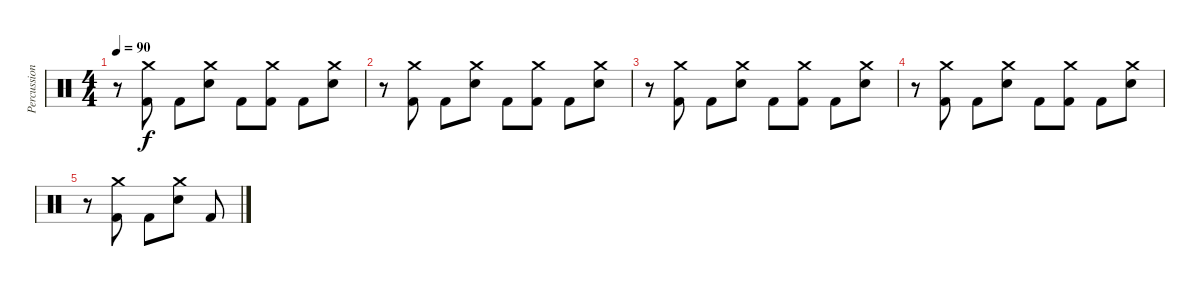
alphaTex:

\track ("Percussion" "Percussion") {instrument percussion}
\staff {score}
\articulation defaults
\ts (4 4)
\tempo 90
\clef neutral
\ks c
r.8{dy f} ("Kick (hit) 2" "Crash medium (hit)").8 "Kick (hit) 2".8 ("Snare (hit) 2" "Crash medium (hit)").8 "Kick (hit) 2".8 ("Kick (hit) 2" "Crash medium (hit)").8 "Kick (hit) 2".8 ("Snare (hit) 2" "Crash medium (hit)").8 |
r.8 ("Kick (hit) 2" "Crash medium (hit)").8 "Kick (hit) 2".8 ("Snare (hit) 2" "Crash medium (hit)").8 "Kick (hit) 2".8 ("Kick (hit) 2" "Crash medium (hit)").8 "Kick (hit) 2".8 ("Snare (hit) 2" "Crash medium (hit)").8 |
r.8 ("Kick (hit) 2" "Crash medium (hit)").8 "Kick (hit) 2".8 ("Snare (hit) 2" "Crash medium (hit)").8 "Kick (hit) 2".8 ("Kick (hit) 2" "Crash medium (hit)").8 "Kick (hit) 2".8 ("Snare (hit) 2" "Crash medium (hit)").8 |
r.8 ("Kick (hit) 2" "Crash medium (hit)").8 "Kick (hit) 2".8 ("Snare (hit) 2" "Crash medium (hit)").8 "Kick (hit) 2".8 ("Kick (hit) 2" "Crash medium (hit)").8 "Kick (hit) 2".8 ("Snare (hit) 2" "Crash medium (hit)").8 |
r.8 ("Kick (hit) 2" "Crash medium (hit)").8 "Kick (hit) 2".8 ("Snare (hit) 2" "Crash medium (hit)").8 "Kick (hit) 2".8
